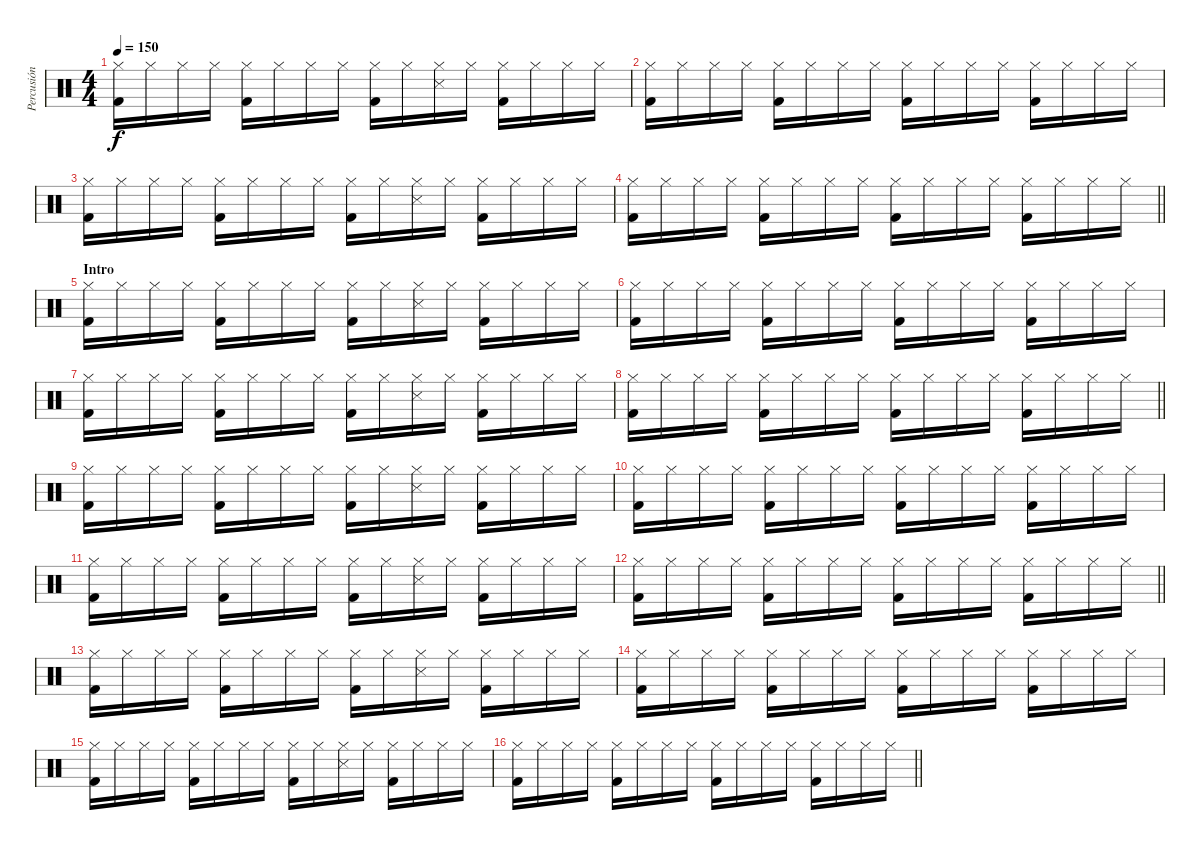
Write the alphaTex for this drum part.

\track ("Percusión" "Percusión") {instrument percussion}
\staff {score}
\articulation defaults
\ts (4 4)
\tempo 150
\clef neutral
\ks c
("Kick (hit) 2" "Hi-Hat (closed)").16{dy f} "Hi-Hat (closed)".16 "Hi-Hat (closed)".16 "Hi-Hat (closed)".16 ("Kick (hit) 2" "Hi-Hat (closed)").16 "Hi-Hat (closed)".16 "Hi-Hat (closed)".16 "Hi-Hat (closed)".16 ("Kick (hit) 2" "Hi-Hat (closed)").16 "Hi-Hat (closed)".16 ("Snare (side stick) 3" "Hi-Hat (closed)").16 "Hi-Hat (closed)".16 ("Kick (hit) 2" "Hi-Hat (closed)").16 "Hi-Hat (closed)".16 "Hi-Hat (closed)".16 "Hi-Hat (closed)".16 |
("Kick (hit) 2" "Hi-Hat (closed)").16 "Hi-Hat (closed)".16 "Hi-Hat (closed)".16 "Hi-Hat (closed)".16 ("Kick (hit) 2" "Hi-Hat (closed)").16 "Hi-Hat (closed)".16 "Hi-Hat (closed)".16 "Hi-Hat (closed)".16 ("Kick (hit) 2" "Hi-Hat (closed)").16 "Hi-Hat (closed)".16 "Hi-Hat (closed)".16 "Hi-Hat (closed)".16 ("Kick (hit) 2" "Hi-Hat (closed)").16 "Hi-Hat (closed)".16 "Hi-Hat (closed)".16 "Hi-Hat (closed)".16 |
("Kick (hit) 2" "Hi-Hat (closed)").16 "Hi-Hat (closed)".16 "Hi-Hat (closed)".16 "Hi-Hat (closed)".16 ("Kick (hit) 2" "Hi-Hat (closed)").16 "Hi-Hat (closed)".16 "Hi-Hat (closed)".16 "Hi-Hat (closed)".16 ("Kick (hit) 2" "Hi-Hat (closed)").16 "Hi-Hat (closed)".16 ("Snare (side stick) 3" "Hi-Hat (closed)").16 "Hi-Hat (closed)".16 ("Kick (hit) 2" "Hi-Hat (closed)").16 "Hi-Hat (closed)".16 "Hi-Hat (closed)".16 "Hi-Hat (closed)".16 |
\barLineRight lightlight
("Kick (hit) 2" "Hi-Hat (closed)").16 "Hi-Hat (closed)".16 "Hi-Hat (closed)".16 "Hi-Hat (closed)".16 ("Kick (hit) 2" "Hi-Hat (closed)").16 "Hi-Hat (closed)".16 "Hi-Hat (closed)".16 "Hi-Hat (closed)".16 ("Kick (hit) 2" "Hi-Hat (closed)").16 "Hi-Hat (closed)".16 "Hi-Hat (closed)".16 "Hi-Hat (closed)".16 ("Kick (hit) 2" "Hi-Hat (closed)").16 "Hi-Hat (closed)".16 "Hi-Hat (closed)".16 "Hi-Hat (closed)".16 |
\section ("" "Intro")
("Kick (hit) 2" "Hi-Hat (closed)").16 "Hi-Hat (closed)".16 "Hi-Hat (closed)".16 "Hi-Hat (closed)".16 ("Kick (hit) 2" "Hi-Hat (closed)").16 "Hi-Hat (closed)".16 "Hi-Hat (closed)".16 "Hi-Hat (closed)".16 ("Kick (hit) 2" "Hi-Hat (closed)").16 "Hi-Hat (closed)".16 ("Snare (side stick) 3" "Hi-Hat (closed)").16 "Hi-Hat (closed)".16 ("Kick (hit) 2" "Hi-Hat (closed)").16 "Hi-Hat (closed)".16 "Hi-Hat (closed)".16 "Hi-Hat (closed)".16 |
("Kick (hit) 2" "Hi-Hat (closed)").16 "Hi-Hat (closed)".16 "Hi-Hat (closed)".16 "Hi-Hat (closed)".16 ("Kick (hit) 2" "Hi-Hat (closed)").16 "Hi-Hat (closed)".16 "Hi-Hat (closed)".16 "Hi-Hat (closed)".16 ("Kick (hit) 2" "Hi-Hat (closed)").16 "Hi-Hat (closed)".16 "Hi-Hat (closed)".16 "Hi-Hat (closed)".16 ("Kick (hit) 2" "Hi-Hat (closed)").16 "Hi-Hat (closed)".16 "Hi-Hat (closed)".16 "Hi-Hat (closed)".16 |
("Kick (hit) 2" "Hi-Hat (closed)").16 "Hi-Hat (closed)".16 "Hi-Hat (closed)".16 "Hi-Hat (closed)".16 ("Kick (hit) 2" "Hi-Hat (closed)").16 "Hi-Hat (closed)".16 "Hi-Hat (closed)".16 "Hi-Hat (closed)".16 ("Kick (hit) 2" "Hi-Hat (closed)").16 "Hi-Hat (closed)".16 ("Snare (side stick) 3" "Hi-Hat (closed)").16 "Hi-Hat (closed)".16 ("Kick (hit) 2" "Hi-Hat (closed)").16 "Hi-Hat (closed)".16 "Hi-Hat (closed)".16 "Hi-Hat (closed)".16 |
\barLineRight lightlight
("Kick (hit) 2" "Hi-Hat (closed)").16 "Hi-Hat (closed)".16 "Hi-Hat (closed)".16 "Hi-Hat (closed)".16 ("Kick (hit) 2" "Hi-Hat (closed)").16 "Hi-Hat (closed)".16 "Hi-Hat (closed)".16 "Hi-Hat (closed)".16 ("Kick (hit) 2" "Hi-Hat (closed)").16 "Hi-Hat (closed)".16 "Hi-Hat (closed)".16 "Hi-Hat (closed)".16 ("Kick (hit) 2" "Hi-Hat (closed)").16 "Hi-Hat (closed)".16 "Hi-Hat (closed)".16 "Hi-Hat (closed)".16 |
("Kick (hit) 2" "Hi-Hat (closed)").16 "Hi-Hat (closed)".16 "Hi-Hat (closed)".16 "Hi-Hat (closed)".16 ("Kick (hit) 2" "Hi-Hat (closed)").16 "Hi-Hat (closed)".16 "Hi-Hat (closed)".16 "Hi-Hat (closed)".16 ("Kick (hit) 2" "Hi-Hat (closed)").16 "Hi-Hat (closed)".16 ("Snare (side stick) 3" "Hi-Hat (closed)").16 "Hi-Hat (closed)".16 ("Kick (hit) 2" "Hi-Hat (closed)").16 "Hi-Hat (closed)".16 "Hi-Hat (closed)".16 "Hi-Hat (closed)".16 |
("Kick (hit) 2" "Hi-Hat (closed)").16 "Hi-Hat (closed)".16 "Hi-Hat (closed)".16 "Hi-Hat (closed)".16 ("Kick (hit) 2" "Hi-Hat (closed)").16 "Hi-Hat (closed)".16 "Hi-Hat (closed)".16 "Hi-Hat (closed)".16 ("Kick (hit) 2" "Hi-Hat (closed)").16 "Hi-Hat (closed)".16 "Hi-Hat (closed)".16 "Hi-Hat (closed)".16 ("Kick (hit) 2" "Hi-Hat (closed)").16 "Hi-Hat (closed)".16 "Hi-Hat (closed)".16 "Hi-Hat (closed)".16 |
("Kick (hit) 2" "Hi-Hat (closed)").16 "Hi-Hat (closed)".16 "Hi-Hat (closed)".16 "Hi-Hat (closed)".16 ("Kick (hit) 2" "Hi-Hat (closed)").16 "Hi-Hat (closed)".16 "Hi-Hat (closed)".16 "Hi-Hat (closed)".16 ("Kick (hit) 2" "Hi-Hat (closed)").16 "Hi-Hat (closed)".16 ("Snare (side stick) 3" "Hi-Hat (closed)").16 "Hi-Hat (closed)".16 ("Kick (hit) 2" "Hi-Hat (closed)").16 "Hi-Hat (closed)".16 "Hi-Hat (closed)".16 "Hi-Hat (closed)".16 |
\barLineRight lightlight
("Kick (hit) 2" "Hi-Hat (closed)").16 "Hi-Hat (closed)".16 "Hi-Hat (closed)".16 "Hi-Hat (closed)".16 ("Kick (hit) 2" "Hi-Hat (closed)").16 "Hi-Hat (closed)".16 "Hi-Hat (closed)".16 "Hi-Hat (closed)".16 ("Kick (hit) 2" "Hi-Hat (closed)").16 "Hi-Hat (closed)".16 "Hi-Hat (closed)".16 "Hi-Hat (closed)".16 ("Kick (hit) 2" "Hi-Hat (closed)").16 "Hi-Hat (closed)".16 "Hi-Hat (closed)".16 "Hi-Hat (closed)".16 |
("Kick (hit) 2" "Hi-Hat (closed)").16 "Hi-Hat (closed)".16 "Hi-Hat (closed)".16 "Hi-Hat (closed)".16 ("Kick (hit) 2" "Hi-Hat (closed)").16 "Hi-Hat (closed)".16 "Hi-Hat (closed)".16 "Hi-Hat (closed)".16 ("Kick (hit) 2" "Hi-Hat (closed)").16 "Hi-Hat (closed)".16 ("Snare (side stick) 3" "Hi-Hat (closed)").16 "Hi-Hat (closed)".16 ("Kick (hit) 2" "Hi-Hat (closed)").16 "Hi-Hat (closed)".16 "Hi-Hat (closed)".16 "Hi-Hat (closed)".16 |
("Kick (hit) 2" "Hi-Hat (closed)").16 "Hi-Hat (closed)".16 "Hi-Hat (closed)".16 "Hi-Hat (closed)".16 ("Kick (hit) 2" "Hi-Hat (closed)").16 "Hi-Hat (closed)".16 "Hi-Hat (closed)".16 "Hi-Hat (closed)".16 ("Kick (hit) 2" "Hi-Hat (closed)").16 "Hi-Hat (closed)".16 "Hi-Hat (closed)".16 "Hi-Hat (closed)".16 ("Kick (hit) 2" "Hi-Hat (closed)").16 "Hi-Hat (closed)".16 "Hi-Hat (closed)".16 "Hi-Hat (closed)".16 |
("Kick (hit) 2" "Hi-Hat (closed)").16 "Hi-Hat (closed)".16 "Hi-Hat (closed)".16 "Hi-Hat (closed)".16 ("Kick (hit) 2" "Hi-Hat (closed)").16 "Hi-Hat (closed)".16 "Hi-Hat (closed)".16 "Hi-Hat (closed)".16 ("Kick (hit) 2" "Hi-Hat (closed)").16 "Hi-Hat (closed)".16 ("Snare (side stick) 3" "Hi-Hat (closed)").16 "Hi-Hat (closed)".16 ("Kick (hit) 2" "Hi-Hat (closed)").16 "Hi-Hat (closed)".16 "Hi-Hat (closed)".16 "Hi-Hat (closed)".16 |
\barLineRight lightlight
("Kick (hit) 2" "Hi-Hat (closed)").16 "Hi-Hat (closed)".16 "Hi-Hat (closed)".16 "Hi-Hat (closed)".16 ("Kick (hit) 2" "Hi-Hat (closed)").16 "Hi-Hat (closed)".16 "Hi-Hat (closed)".16 "Hi-Hat (closed)".16 ("Kick (hit) 2" "Hi-Hat (closed)").16 "Hi-Hat (closed)".16 "Hi-Hat (closed)".16 "Hi-Hat (closed)".16 ("Kick (hit) 2" "Hi-Hat (closed)").16 "Hi-Hat (closed)".16 "Hi-Hat (closed)".16 "Hi-Hat (closed)".16
